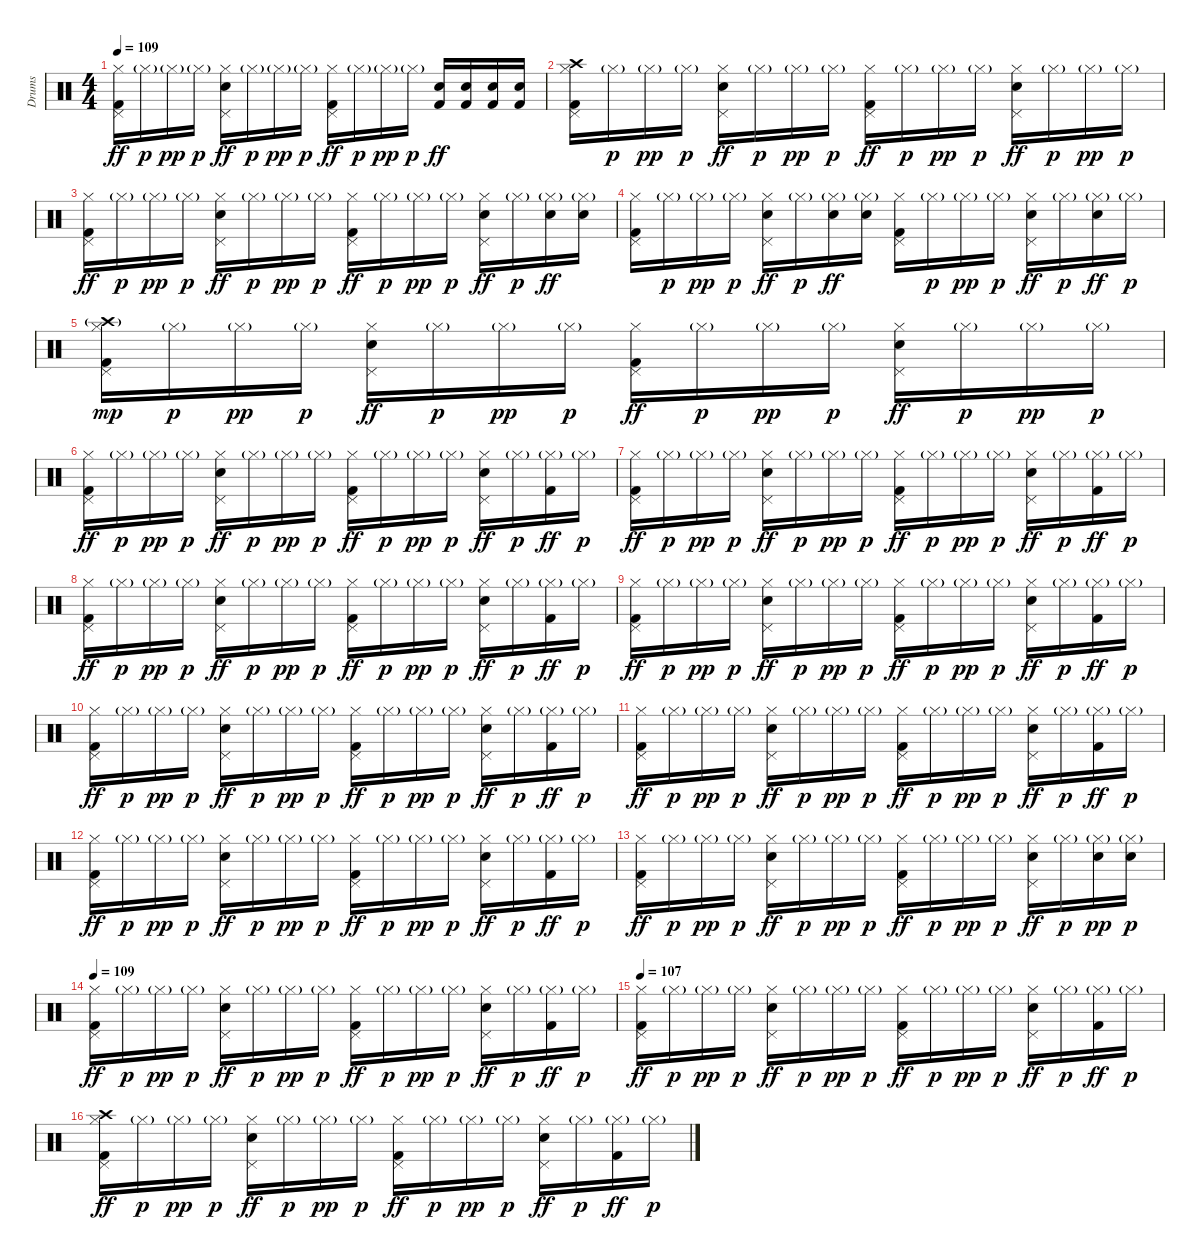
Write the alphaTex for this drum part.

\track ("Drums" "Drums") {instrument percussion}
\staff {score}
\articulation defaults
\ts (4 4)
\tempo 109
\clef neutral
\ks c
("Hi-Hat (closed)" "Pedal Hi-Hat (hit)" "Kick (hit) 2").16{dy ff} "Hi-Hat (closed)"{g}.16{dy p} "Hi-Hat (closed)"{g}.16{dy pp} "Hi-Hat (closed)"{g}.16{dy p} ("Hi-Hat (closed)" "Pedal Hi-Hat (hit)" "Electric Snare (hit)").16{dy ff} "Hi-Hat (closed)"{g}.16{dy p} "Hi-Hat (closed)"{g}.16{dy pp} "Hi-Hat (closed)"{g}.16{dy p} ("Hi-Hat (closed)" "Pedal Hi-Hat (hit)" "Kick (hit) 2").16{dy ff} "Hi-Hat (closed)"{g}.16{dy p} "Hi-Hat (closed)"{g}.16{dy pp} "Hi-Hat (closed)"{g}.16{dy p} ("Kick (hit) 2" "Electric Snare (hit)").16{dy ff} ("Kick (hit) 2" "Electric Snare (hit)").16 ("Kick (hit) 2" "Electric Snare (hit)").16 ("Kick (hit) 2" "Electric Snare (hit)").16 |
("Hi-Hat (closed)" "Pedal Hi-Hat (hit)" "Kick (hit) 2" "Crash high (hit)").16 "Hi-Hat (closed)"{g}.16{dy p} "Hi-Hat (closed)"{g}.16{dy pp} "Hi-Hat (closed)"{g}.16{dy p} ("Hi-Hat (closed)" "Pedal Hi-Hat (hit)" "Electric Snare (hit)").16{dy ff} "Hi-Hat (closed)"{g}.16{dy p} "Hi-Hat (closed)"{g}.16{dy pp} "Hi-Hat (closed)"{g}.16{dy p} ("Hi-Hat (closed)" "Pedal Hi-Hat (hit)" "Kick (hit) 2").16{dy ff} "Hi-Hat (closed)"{g}.16{dy p} "Hi-Hat (closed)"{g}.16{dy pp} "Hi-Hat (closed)"{g}.16{dy p} ("Hi-Hat (closed)" "Pedal Hi-Hat (hit)" "Electric Snare (hit)").16{dy ff} "Hi-Hat (closed)"{g}.16{dy p} "Hi-Hat (closed)"{g}.16{dy pp} "Hi-Hat (closed)"{g}.16{dy p} |
("Hi-Hat (closed)" "Pedal Hi-Hat (hit)" "Kick (hit) 2").16{dy ff} "Hi-Hat (closed)"{g}.16{dy p} "Hi-Hat (closed)"{g}.16{dy pp} "Hi-Hat (closed)"{g}.16{dy p} ("Hi-Hat (closed)" "Pedal Hi-Hat (hit)" "Electric Snare (hit)").16{dy ff} "Hi-Hat (closed)"{g}.16{dy p} "Hi-Hat (closed)"{g}.16{dy pp} "Hi-Hat (closed)"{g}.16{dy p} ("Hi-Hat (closed)" "Pedal Hi-Hat (hit)" "Kick (hit) 2").16{dy ff} "Hi-Hat (closed)"{g}.16{dy p} "Hi-Hat (closed)"{g}.16{dy pp} "Hi-Hat (closed)"{g}.16{dy p} ("Hi-Hat (closed)" "Pedal Hi-Hat (hit)" "Electric Snare (hit)").16{dy ff} "Hi-Hat (closed)"{g}.16{dy p} ("Hi-Hat (closed)"{g} "Electric Snare (hit)").16{dy ff} ("Hi-Hat (closed)"{g} "Electric Snare (hit)").16 |
("Hi-Hat (closed)" "Pedal Hi-Hat (hit)" "Kick (hit) 2").16 "Hi-Hat (closed)"{g}.16{dy p} "Hi-Hat (closed)"{g}.16{dy pp} "Hi-Hat (closed)"{g}.16{dy p} ("Hi-Hat (closed)" "Pedal Hi-Hat (hit)" "Electric Snare (hit)").16{dy ff} "Hi-Hat (closed)"{g}.16{dy p} ("Hi-Hat (closed)"{g} "Electric Snare (hit)").16{dy ff} ("Hi-Hat (closed)"{g} "Electric Snare (hit)").16 ("Hi-Hat (closed)" "Pedal Hi-Hat (hit)" "Kick (hit) 2").16 "Hi-Hat (closed)"{g}.16{dy p} "Hi-Hat (closed)"{g}.16{dy pp} "Hi-Hat (closed)"{g}.16{dy p} ("Hi-Hat (closed)" "Pedal Hi-Hat (hit)" "Electric Snare (hit)").16{dy ff} "Hi-Hat (closed)"{g}.16{dy p} ("Hi-Hat (closed)"{g} "Electric Snare (hit)").16{dy ff} "Hi-Hat (closed)"{g}.16{dy p} |
("Hi-Hat (closed)" "Pedal Hi-Hat (hit)" "Kick (hit) 2" "Crash high (hit)"{g}).16{dy mp} "Hi-Hat (closed)"{g}.16{dy p} "Hi-Hat (closed)"{g}.16{dy pp} "Hi-Hat (closed)"{g}.16{dy p} ("Hi-Hat (closed)" "Pedal Hi-Hat (hit)" "Electric Snare (hit)").16{dy ff} "Hi-Hat (closed)"{g}.16{dy p} "Hi-Hat (closed)"{g}.16{dy pp} "Hi-Hat (closed)"{g}.16{dy p} ("Hi-Hat (closed)" "Pedal Hi-Hat (hit)" "Kick (hit) 2").16{dy ff} "Hi-Hat (closed)"{g}.16{dy p} "Hi-Hat (closed)"{g}.16{dy pp} "Hi-Hat (closed)"{g}.16{dy p} ("Hi-Hat (closed)" "Pedal Hi-Hat (hit)" "Electric Snare (hit)").16{dy ff} "Hi-Hat (closed)"{g}.16{dy p} "Hi-Hat (closed)"{g}.16{dy pp} "Hi-Hat (closed)"{g}.16{dy p} |
("Hi-Hat (closed)" "Pedal Hi-Hat (hit)" "Kick (hit) 2").16{dy ff} "Hi-Hat (closed)"{g}.16{dy p} "Hi-Hat (closed)"{g}.16{dy pp} "Hi-Hat (closed)"{g}.16{dy p} ("Hi-Hat (closed)" "Pedal Hi-Hat (hit)" "Electric Snare (hit)").16{dy ff} "Hi-Hat (closed)"{g}.16{dy p} "Hi-Hat (closed)"{g}.16{dy pp} "Hi-Hat (closed)"{g}.16{dy p} ("Hi-Hat (closed)" "Pedal Hi-Hat (hit)" "Kick (hit) 2").16{dy ff} "Hi-Hat (closed)"{g}.16{dy p} "Hi-Hat (closed)"{g}.16{dy pp} "Hi-Hat (closed)"{g}.16{dy p} ("Hi-Hat (closed)" "Pedal Hi-Hat (hit)" "Electric Snare (hit)").16{dy ff} "Hi-Hat (closed)"{g}.16{dy p} ("Hi-Hat (closed)"{g} "Kick (hit) 2").16{dy ff} "Hi-Hat (closed)"{g}.16{dy p} |
("Hi-Hat (closed)" "Pedal Hi-Hat (hit)" "Kick (hit) 2").16{dy ff} "Hi-Hat (closed)"{g}.16{dy p} "Hi-Hat (closed)"{g}.16{dy pp} "Hi-Hat (closed)"{g}.16{dy p} ("Hi-Hat (closed)" "Pedal Hi-Hat (hit)" "Electric Snare (hit)").16{dy ff} "Hi-Hat (closed)"{g}.16{dy p} "Hi-Hat (closed)"{g}.16{dy pp} "Hi-Hat (closed)"{g}.16{dy p} ("Hi-Hat (closed)" "Pedal Hi-Hat (hit)" "Kick (hit) 2").16{dy ff} "Hi-Hat (closed)"{g}.16{dy p} "Hi-Hat (closed)"{g}.16{dy pp} "Hi-Hat (closed)"{g}.16{dy p} ("Hi-Hat (closed)" "Pedal Hi-Hat (hit)" "Electric Snare (hit)").16{dy ff} "Hi-Hat (closed)"{g}.16{dy p} ("Hi-Hat (closed)"{g} "Kick (hit) 2").16{dy ff} "Hi-Hat (closed)"{g}.16{dy p} |
("Hi-Hat (closed)" "Pedal Hi-Hat (hit)" "Kick (hit) 2").16{dy ff} "Hi-Hat (closed)"{g}.16{dy p} "Hi-Hat (closed)"{g}.16{dy pp} "Hi-Hat (closed)"{g}.16{dy p} ("Hi-Hat (closed)" "Pedal Hi-Hat (hit)" "Electric Snare (hit)").16{dy ff} "Hi-Hat (closed)"{g}.16{dy p} "Hi-Hat (closed)"{g}.16{dy pp} "Hi-Hat (closed)"{g}.16{dy p} ("Hi-Hat (closed)" "Pedal Hi-Hat (hit)" "Kick (hit) 2").16{dy ff} "Hi-Hat (closed)"{g}.16{dy p} "Hi-Hat (closed)"{g}.16{dy pp} "Hi-Hat (closed)"{g}.16{dy p} ("Hi-Hat (closed)" "Pedal Hi-Hat (hit)" "Electric Snare (hit)").16{dy ff} "Hi-Hat (closed)"{g}.16{dy p} ("Hi-Hat (closed)"{g} "Kick (hit) 2").16{dy ff} "Hi-Hat (closed)"{g}.16{dy p} |
("Hi-Hat (closed)" "Pedal Hi-Hat (hit)" "Kick (hit) 2").16{dy ff} "Hi-Hat (closed)"{g}.16{dy p} "Hi-Hat (closed)"{g}.16{dy pp} "Hi-Hat (closed)"{g}.16{dy p} ("Hi-Hat (closed)" "Pedal Hi-Hat (hit)" "Electric Snare (hit)").16{dy ff} "Hi-Hat (closed)"{g}.16{dy p} "Hi-Hat (closed)"{g}.16{dy pp} "Hi-Hat (closed)"{g}.16{dy p} ("Hi-Hat (closed)" "Pedal Hi-Hat (hit)" "Kick (hit) 2").16{dy ff} "Hi-Hat (closed)"{g}.16{dy p} "Hi-Hat (closed)"{g}.16{dy pp} "Hi-Hat (closed)"{g}.16{dy p} ("Hi-Hat (closed)" "Pedal Hi-Hat (hit)" "Electric Snare (hit)").16{dy ff} "Hi-Hat (closed)"{g}.16{dy p} ("Hi-Hat (closed)"{g} "Kick (hit) 2").16{dy ff} "Hi-Hat (closed)"{g}.16{dy p} |
("Hi-Hat (closed)" "Pedal Hi-Hat (hit)" "Kick (hit) 2").16{dy ff} "Hi-Hat (closed)"{g}.16{dy p} "Hi-Hat (closed)"{g}.16{dy pp} "Hi-Hat (closed)"{g}.16{dy p} ("Hi-Hat (closed)" "Pedal Hi-Hat (hit)" "Electric Snare (hit)").16{dy ff} "Hi-Hat (closed)"{g}.16{dy p} "Hi-Hat (closed)"{g}.16{dy pp} "Hi-Hat (closed)"{g}.16{dy p} ("Hi-Hat (closed)" "Pedal Hi-Hat (hit)" "Kick (hit) 2").16{dy ff} "Hi-Hat (closed)"{g}.16{dy p} "Hi-Hat (closed)"{g}.16{dy pp} "Hi-Hat (closed)"{g}.16{dy p} ("Hi-Hat (closed)" "Pedal Hi-Hat (hit)" "Electric Snare (hit)").16{dy ff} "Hi-Hat (closed)"{g}.16{dy p} ("Hi-Hat (closed)"{g} "Kick (hit) 2").16{dy ff} "Hi-Hat (closed)"{g}.16{dy p} |
("Hi-Hat (closed)" "Pedal Hi-Hat (hit)" "Kick (hit) 2").16{dy ff} "Hi-Hat (closed)"{g}.16{dy p} "Hi-Hat (closed)"{g}.16{dy pp} "Hi-Hat (closed)"{g}.16{dy p} ("Hi-Hat (closed)" "Pedal Hi-Hat (hit)" "Electric Snare (hit)").16{dy ff} "Hi-Hat (closed)"{g}.16{dy p} "Hi-Hat (closed)"{g}.16{dy pp} "Hi-Hat (closed)"{g}.16{dy p} ("Hi-Hat (closed)" "Pedal Hi-Hat (hit)" "Kick (hit) 2").16{dy ff} "Hi-Hat (closed)"{g}.16{dy p} "Hi-Hat (closed)"{g}.16{dy pp} "Hi-Hat (closed)"{g}.16{dy p} ("Hi-Hat (closed)" "Pedal Hi-Hat (hit)" "Electric Snare (hit)").16{dy ff} "Hi-Hat (closed)"{g}.16{dy p} ("Hi-Hat (closed)"{g} "Kick (hit) 2").16{dy ff} "Hi-Hat (closed)"{g}.16{dy p} |
("Hi-Hat (closed)" "Pedal Hi-Hat (hit)" "Kick (hit) 2").16{dy ff} "Hi-Hat (closed)"{g}.16{dy p} "Hi-Hat (closed)"{g}.16{dy pp} "Hi-Hat (closed)"{g}.16{dy p} ("Hi-Hat (closed)" "Pedal Hi-Hat (hit)" "Electric Snare (hit)").16{dy ff} "Hi-Hat (closed)"{g}.16{dy p} "Hi-Hat (closed)"{g}.16{dy pp} "Hi-Hat (closed)"{g}.16{dy p} ("Hi-Hat (closed)" "Pedal Hi-Hat (hit)" "Kick (hit) 2").16{dy ff} "Hi-Hat (closed)"{g}.16{dy p} "Hi-Hat (closed)"{g}.16{dy pp} "Hi-Hat (closed)"{g}.16{dy p} ("Hi-Hat (closed)" "Pedal Hi-Hat (hit)" "Electric Snare (hit)").16{dy ff} "Hi-Hat (closed)"{g}.16{dy p} ("Hi-Hat (closed)"{g} "Kick (hit) 2").16{dy ff} "Hi-Hat (closed)"{g}.16{dy p} |
("Hi-Hat (closed)" "Pedal Hi-Hat (hit)" "Kick (hit) 2").16{dy ff} "Hi-Hat (closed)"{g}.16{dy p} "Hi-Hat (closed)"{g}.16{dy pp} "Hi-Hat (closed)"{g}.16{dy p} ("Hi-Hat (closed)" "Pedal Hi-Hat (hit)" "Electric Snare (hit)").16{dy ff} "Hi-Hat (closed)"{g}.16{dy p} "Hi-Hat (closed)"{g}.16{dy pp} "Hi-Hat (closed)"{g}.16{dy p} ("Hi-Hat (closed)" "Pedal Hi-Hat (hit)" "Kick (hit) 2").16{dy ff} "Hi-Hat (closed)"{g}.16{dy p} "Hi-Hat (closed)"{g}.16{dy pp} "Hi-Hat (closed)"{g}.16{dy p} ("Hi-Hat (closed)" "Pedal Hi-Hat (hit)" "Electric Snare (hit)").16{dy ff} "Hi-Hat (closed)"{g}.16{dy p} ("Hi-Hat (closed)"{g} "Electric Snare (hit)").16{dy pp} ("Hi-Hat (closed)"{g} "Electric Snare (hit)").16{dy p} |
\tempo 109
("Hi-Hat (closed)" "Pedal Hi-Hat (hit)" "Kick (hit) 2").16{dy ff} "Hi-Hat (closed)"{g}.16{dy p} "Hi-Hat (closed)"{g}.16{dy pp} "Hi-Hat (closed)"{g}.16{dy p} ("Hi-Hat (closed)" "Pedal Hi-Hat (hit)" "Electric Snare (hit)").16{dy ff} "Hi-Hat (closed)"{g}.16{dy p} "Hi-Hat (closed)"{g}.16{dy pp} "Hi-Hat (closed)"{g}.16{dy p} ("Hi-Hat (closed)" "Pedal Hi-Hat (hit)" "Kick (hit) 2").16{dy ff} "Hi-Hat (closed)"{g}.16{dy p} "Hi-Hat (closed)"{g}.16{dy pp} "Hi-Hat (closed)"{g}.16{dy p} ("Hi-Hat (closed)" "Pedal Hi-Hat (hit)" "Electric Snare (hit)").16{dy ff} "Hi-Hat (closed)"{g}.16{dy p} ("Hi-Hat (closed)"{g} "Kick (hit) 2").16{dy ff} "Hi-Hat (closed)"{g}.16{dy p} |
\tempo 107
("Hi-Hat (closed)" "Pedal Hi-Hat (hit)" "Kick (hit) 2").16{dy ff} "Hi-Hat (closed)"{g}.16{dy p} "Hi-Hat (closed)"{g}.16{dy pp} "Hi-Hat (closed)"{g}.16{dy p} ("Hi-Hat (closed)" "Pedal Hi-Hat (hit)" "Electric Snare (hit)").16{dy ff} "Hi-Hat (closed)"{g}.16{dy p} "Hi-Hat (closed)"{g}.16{dy pp} "Hi-Hat (closed)"{g}.16{dy p} ("Hi-Hat (closed)" "Pedal Hi-Hat (hit)" "Kick (hit) 2").16{dy ff} "Hi-Hat (closed)"{g}.16{dy p} "Hi-Hat (closed)"{g}.16{dy pp} "Hi-Hat (closed)"{g}.16{dy p} ("Hi-Hat (closed)" "Pedal Hi-Hat (hit)" "Electric Snare (hit)").16{dy ff} "Hi-Hat (closed)"{g}.16{dy p} ("Hi-Hat (closed)"{g} "Kick (hit) 2").16{dy ff} "Hi-Hat (closed)"{g}.16{dy p} |
("Hi-Hat (closed)" "Pedal Hi-Hat (hit)" "Kick (hit) 2" "Crash high (hit)").16{dy ff} "Hi-Hat (closed)"{g}.16{dy p} "Hi-Hat (closed)"{g}.16{dy pp} "Hi-Hat (closed)"{g}.16{dy p} ("Hi-Hat (closed)" "Pedal Hi-Hat (hit)" "Electric Snare (hit)").16{dy ff} "Hi-Hat (closed)"{g}.16{dy p} "Hi-Hat (closed)"{g}.16{dy pp} "Hi-Hat (closed)"{g}.16{dy p} ("Hi-Hat (closed)" "Pedal Hi-Hat (hit)" "Kick (hit) 2").16{dy ff} "Hi-Hat (closed)"{g}.16{dy p} "Hi-Hat (closed)"{g}.16{dy pp} "Hi-Hat (closed)"{g}.16{dy p} ("Hi-Hat (closed)" "Pedal Hi-Hat (hit)" "Electric Snare (hit)").16{dy ff} "Hi-Hat (closed)"{g}.16{dy p} ("Hi-Hat (closed)"{g} "Kick (hit) 2").16{dy ff} "Hi-Hat (closed)"{g}.16{dy p}
